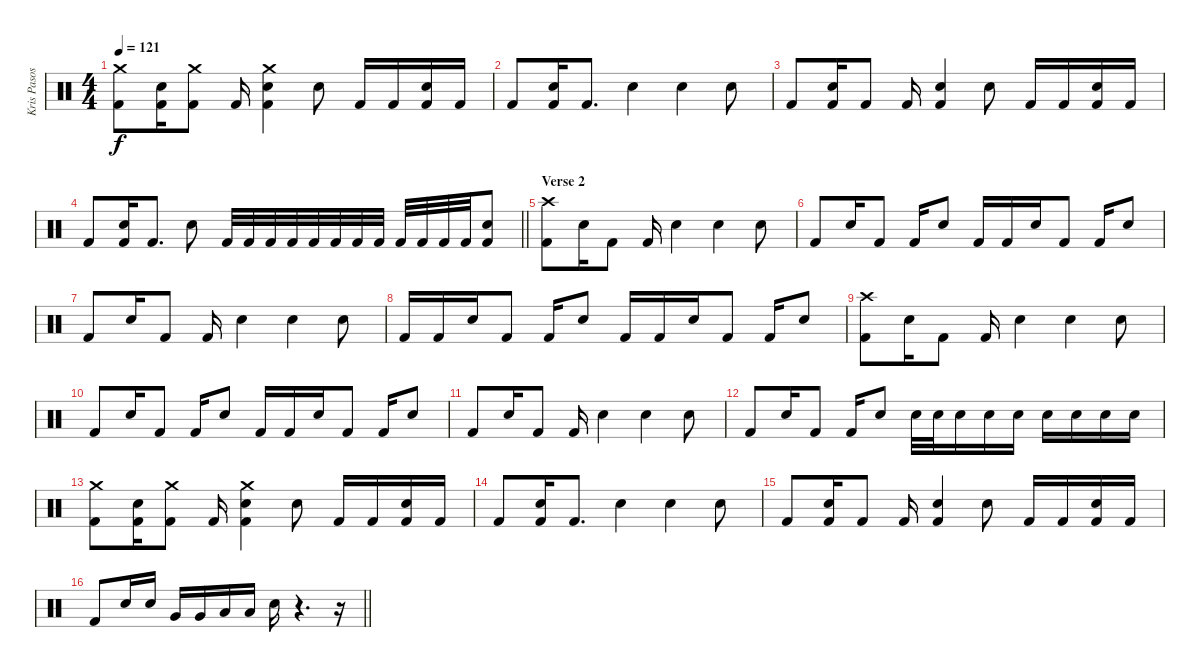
\track ("Kris Pasos" "Kris Pasos") {instrument percussion}
\staff {score}
\articulation defaults
\ts (4 4)
\tempo 121
\clef neutral
\ks c
("Crash medium (hit)" "Kick (hit) 2").8{dy f} ("Snare (hit) 2" "Kick (hit) 2").16 ("Crash medium (hit)" "Kick (hit) 2").8 "Kick (hit) 2".16 ("Crash medium (hit)" "Snare (hit) 2" "Kick (hit) 2").4 "Snare (hit) 2".8 "Kick (hit) 2".16 "Kick (hit) 2".16 ("Snare (hit) 2" "Kick (hit) 2").16 "Kick (hit) 2".16 |
"Kick (hit) 2".8 ("Snare (hit) 2" "Kick (hit) 2").16 "Kick (hit) 2".8{d} "Snare (hit) 2".4 "Snare (hit) 2".4 "Snare (hit) 2".8 |
"Kick (hit) 2".8 ("Snare (hit) 2" "Kick (hit) 2").16 "Kick (hit) 2".8 "Kick (hit) 2".16 ("Snare (hit) 2" "Kick (hit) 2").4 "Snare (hit) 2".8 "Kick (hit) 2".16 "Kick (hit) 2".16 ("Snare (hit) 2" "Kick (hit) 2").16 "Kick (hit) 2".16 |
\barLineRight lightlight "Kick (hit) 2".8
("Snare (hit) 2" "Kick (hit) 2").16 "Kick (hit) 2".8{d} "Snare (hit) 2".8 "Kick (hit) 2".32 "Kick (hit) 2".32 "Kick (hit) 2".32 "Kick (hit) 2".32 "Kick (hit) 2".32 "Kick (hit) 2".32 "Kick (hit) 2".32 "Kick (hit) 2".32 "Kick (hit) 2".32 "Kick (hit) 2".32 "Kick (hit) 2".32 "Kick (hit) 2".32 ("Snare (hit) 2" "Kick (hit) 2").8 |
\section ("" "Verse 2")
("Crash high (hit)" "Kick (hit) 2").8 "Snare (hit) 2".16 "Kick (hit) 2".8 "Kick (hit) 2".16 "Snare (hit) 2".4 "Snare (hit) 2".4 "Snare (hit) 2".8 |
"Kick (hit) 2".8 "Snare (hit) 2".16 "Kick (hit) 2".8 "Kick (hit) 2".16 "Snare (hit) 2".8 "Kick (hit) 2".16 "Kick (hit) 2".16 "Snare (hit) 2".16 "Kick (hit) 2".8 "Kick (hit) 2".16 "Snare (hit) 2".8 |
"Kick (hit) 2".8 "Snare (hit) 2".16 "Kick (hit) 2".8 "Kick (hit) 2".16 "Snare (hit) 2".4 "Snare (hit) 2".4 "Snare (hit) 2".8 |
"Kick (hit) 2".16 "Kick (hit) 2".16 "Snare (hit) 2".16 "Kick (hit) 2".8 "Kick (hit) 2".16 "Snare (hit) 2".8 "Kick (hit) 2".16 "Kick (hit) 2".16 "Snare (hit) 2".16 "Kick (hit) 2".8 "Kick (hit) 2".16 "Snare (hit) 2".8 |
("Crash high (hit)" "Kick (hit) 2").8 "Snare (hit) 2".16 "Kick (hit) 2".8 "Kick (hit) 2".16 "Snare (hit) 2".4 "Snare (hit) 2".4 "Snare (hit) 2".8 |
"Kick (hit) 2".8 "Snare (hit) 2".16 "Kick (hit) 2".8 "Kick (hit) 2".16 "Snare (hit) 2".8 "Kick (hit) 2".16 "Kick (hit) 2".16 "Snare (hit) 2".16 "Kick (hit) 2".8 "Kick (hit) 2".16 "Snare (hit) 2".8 |
"Kick (hit) 2".8 "Snare (hit) 2".16 "Kick (hit) 2".8 "Kick (hit) 2".16 "Snare (hit) 2".4 "Snare (hit) 2".4 "Snare (hit) 2".8 |
"Kick (hit) 2".8 "Snare (hit) 2".16 "Kick (hit) 2".8 "Kick (hit) 2".16 "Snare (hit) 2".8 "Snare (hit) 2".32 "Snare (hit) 2".32 "Snare (hit) 2".16 "Snare (hit) 2".16 "Snare (hit) 2".16 "Snare (hit) 2".16 "Snare (hit) 2".16 "Snare (hit) 2".16 "Snare (hit) 2".16 |
("Crash medium (hit)" "Kick (hit) 2").8 ("Snare (hit) 2" "Kick (hit) 2").16 ("Crash medium (hit)" "Kick (hit) 2").8 "Kick (hit) 2".16 ("Crash medium (hit)" "Snare (hit) 2" "Kick (hit) 2").4 "Snare (hit) 2".8 "Kick (hit) 2".16 "Kick (hit) 2".16 ("Snare (hit) 2" "Kick (hit) 2").16 "Kick (hit) 2".16 |
"Kick (hit) 2".8 ("Snare (hit) 2" "Kick (hit) 2").16 "Kick (hit) 2".8{d} "Snare (hit) 2".4 "Snare (hit) 2".4 "Snare (hit) 2".8 |
"Kick (hit) 2".8 ("Snare (hit) 2" "Kick (hit) 2").16 "Kick (hit) 2".8 "Kick (hit) 2".16 ("Snare (hit) 2" "Kick (hit) 2").4 "Snare (hit) 2".8 "Kick (hit) 2".16 "Kick (hit) 2".16 ("Snare (hit) 2" "Kick (hit) 2").16 "Kick (hit) 2".16 |
\barLineRight lightlight "Kick (hit) 2".8 "Snare (hit) 2".16 "Snare (hit) 2".16 "Very Low Tom (hit)".16 "Very Low Tom (hit)".16 "Low Floor Tom (hit)".16 "Low Floor Tom (hit)".16 "Snare (hit) 2".16
r.4{d} r.16
